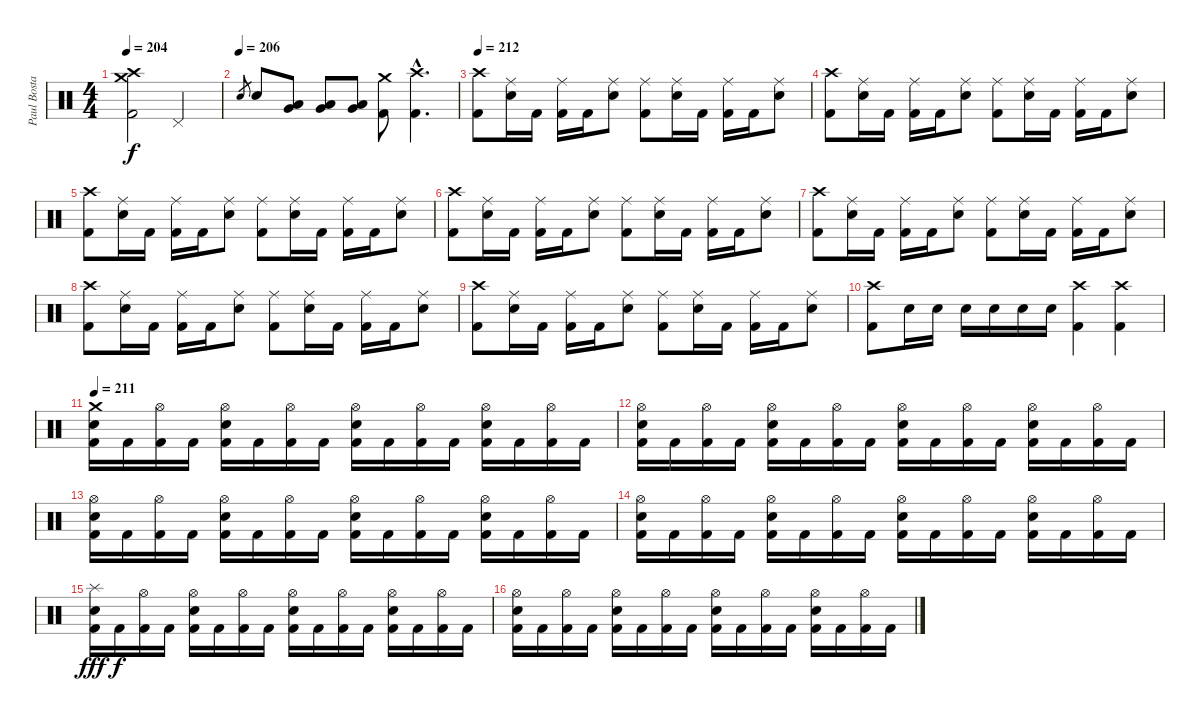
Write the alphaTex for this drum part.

\track ("Paul Bostaph" "Paul Bosta") {instrument percussion}
\staff {score}
\articulation defaults
\ts (4 4)
\tempo 204
\clef neutral
\ks c
("Crash high (hit)" "Crash medium (hit)" "Kick (hit) 2").2{dy f} "Pedal Hi-Hat (hit)".2 |
\tempo (206)
"Electric Snare (hit)".8{gr} "Electric Snare (hit)".8 ("Very Low Tom (hit)" "Low Tom (hit)").8 ("Very Low Tom (hit)" "Low Tom (hit)").8 ("Low Tom (hit)" "Very Low Tom (hit)").8 ("Crash medium (hit)" "Kick (hit) 2").8 ("Crash high (hit)"{hac} "Kick (hit) 2"{hac}).4{d} |
\tempo 212
("Crash high (hit)" "Kick (hit) 2").8 ("Ride (middle)" "Electric Snare (hit)").16 "Kick (hit) 2".16 ("Ride (middle)" "Kick (hit) 2").16 "Kick (hit) 2".16 ("Ride (middle)" "Electric Snare (hit)").8 ("Ride (middle)" "Kick (hit) 2").8 ("Ride (middle)" "Electric Snare (hit)").16 "Kick (hit) 2".16 ("Ride (middle)" "Kick (hit) 2").16 "Kick (hit) 2".16 ("Ride (middle)" "Electric Snare (hit)").8 |
("Crash high (hit)" "Kick (hit) 2").8 ("Ride (middle)" "Electric Snare (hit)").16 "Kick (hit) 2".16 ("Ride (middle)" "Kick (hit) 2").16 "Kick (hit) 2".16 ("Ride (middle)" "Electric Snare (hit)").8 ("Ride (middle)" "Kick (hit) 2").8 ("Ride (middle)" "Electric Snare (hit)").16 "Kick (hit) 2".16 ("Ride (middle)" "Kick (hit) 2").16 "Kick (hit) 2".16 ("Ride (middle)" "Electric Snare (hit)").8 |
("Crash high (hit)" "Kick (hit) 2").8 ("Ride (middle)" "Electric Snare (hit)").16 "Kick (hit) 2".16 ("Ride (middle)" "Kick (hit) 2").16 "Kick (hit) 2".16 ("Ride (middle)" "Electric Snare (hit)").8 ("Ride (middle)" "Kick (hit) 2").8 ("Ride (middle)" "Electric Snare (hit)").16 "Kick (hit) 2".16 ("Ride (middle)" "Kick (hit) 2").16 "Kick (hit) 2".16 ("Ride (middle)" "Electric Snare (hit)").8 |
("Crash high (hit)" "Kick (hit) 2").8 ("Ride (middle)" "Electric Snare (hit)").16 "Kick (hit) 2".16 ("Ride (middle)" "Kick (hit) 2").16 "Kick (hit) 2".16 ("Ride (middle)" "Electric Snare (hit)").8 ("Ride (middle)" "Kick (hit) 2").8 ("Ride (middle)" "Electric Snare (hit)").16 "Kick (hit) 2".16 ("Ride (middle)" "Kick (hit) 2").16 "Kick (hit) 2".16 ("Ride (middle)" "Electric Snare (hit)").8 |
("Crash high (hit)" "Kick (hit) 2").8 ("Ride (middle)" "Electric Snare (hit)").16 "Kick (hit) 2".16 ("Ride (middle)" "Kick (hit) 2").16 "Kick (hit) 2".16 ("Ride (middle)" "Electric Snare (hit)").8 ("Ride (middle)" "Kick (hit) 2").8 ("Ride (middle)" "Electric Snare (hit)").16 "Kick (hit) 2".16 ("Ride (middle)" "Kick (hit) 2").16 "Kick (hit) 2".16 ("Ride (middle)" "Electric Snare (hit)").8 |
("Crash high (hit)" "Kick (hit) 2").8 ("Ride (middle)" "Electric Snare (hit)").16 "Kick (hit) 2".16 ("Ride (middle)" "Kick (hit) 2").16 "Kick (hit) 2".16 ("Ride (middle)" "Electric Snare (hit)").8 ("Ride (middle)" "Kick (hit) 2").8 ("Ride (middle)" "Electric Snare (hit)").16 "Kick (hit) 2".16 ("Ride (middle)" "Kick (hit) 2").16 "Kick (hit) 2".16 ("Ride (middle)" "Electric Snare (hit)").8 |
("Crash high (hit)" "Kick (hit) 2").8 ("Ride (middle)" "Electric Snare (hit)").16 "Kick (hit) 2".16 ("Ride (middle)" "Kick (hit) 2").16 "Kick (hit) 2".16 ("Ride (middle)" "Electric Snare (hit)").8 ("Ride (middle)" "Kick (hit) 2").8 ("Ride (middle)" "Electric Snare (hit)").16 "Kick (hit) 2".16 ("Ride (middle)" "Kick (hit) 2").16 "Kick (hit) 2".16 ("Ride (middle)" "Electric Snare (hit)").8 |
("Crash high (hit)" "Kick (hit) 2").8 "Electric Snare (hit)".16 "Electric Snare (hit)".16 "Electric Snare (hit)".16 "Electric Snare (hit)".16 "Electric Snare (hit)".16 "Electric Snare (hit)".16 ("Crash high (hit)" "Kick (hit) 2").4 ("Crash high (hit)" "Kick (hit) 2").4 |
\tempo 211
("Kick (hit) 2" "Electric Snare (hit)" "Crash medium (hit)").16 "Kick (hit) 2".16 ("Kick (hit) 2" "Hi-Hat (open)").16 "Kick (hit) 2".16 ("Kick (hit) 2" "Electric Snare (hit)" "Hi-Hat (open)").16 "Kick (hit) 2".16 ("Kick (hit) 2" "Hi-Hat (open)").16 "Kick (hit) 2".16 ("Kick (hit) 2" "Electric Snare (hit)" "Hi-Hat (open)").16 "Kick (hit) 2".16 ("Kick (hit) 2" "Hi-Hat (open)").16 "Kick (hit) 2".16 ("Kick (hit) 2" "Electric Snare (hit)" "Hi-Hat (open)").16 "Kick (hit) 2".16 ("Kick (hit) 2" "Hi-Hat (open)").16 "Kick (hit) 2".16 |
("Kick (hit) 2" "Electric Snare (hit)" "Hi-Hat (open)").16 "Kick (hit) 2".16 ("Kick (hit) 2" "Hi-Hat (open)").16 "Kick (hit) 2".16 ("Kick (hit) 2" "Electric Snare (hit)" "Hi-Hat (open)").16 "Kick (hit) 2".16 ("Kick (hit) 2" "Hi-Hat (open)").16 "Kick (hit) 2".16 ("Kick (hit) 2" "Electric Snare (hit)" "Hi-Hat (open)").16 "Kick (hit) 2".16 ("Kick (hit) 2" "Hi-Hat (open)").16 "Kick (hit) 2".16 ("Kick (hit) 2" "Electric Snare (hit)" "Hi-Hat (open)").16 "Kick (hit) 2".16 ("Kick (hit) 2" "Hi-Hat (open)").16 "Kick (hit) 2".16 |
("Kick (hit) 2" "Electric Snare (hit)" "Hi-Hat (open)").16 "Kick (hit) 2".16 ("Kick (hit) 2" "Hi-Hat (open)").16 "Kick (hit) 2".16 ("Kick (hit) 2" "Electric Snare (hit)" "Hi-Hat (open)").16 "Kick (hit) 2".16 ("Kick (hit) 2" "Hi-Hat (open)").16 "Kick (hit) 2".16 ("Kick (hit) 2" "Electric Snare (hit)" "Hi-Hat (open)").16 "Kick (hit) 2".16 ("Kick (hit) 2" "Hi-Hat (open)").16 "Kick (hit) 2".16 ("Kick (hit) 2" "Electric Snare (hit)" "Hi-Hat (open)").16 "Kick (hit) 2".16 ("Kick (hit) 2" "Hi-Hat (open)").16 "Kick (hit) 2".16 |
("Kick (hit) 2" "Electric Snare (hit)" "Hi-Hat (open)").16 "Kick (hit) 2".16 ("Kick (hit) 2" "Hi-Hat (open)").16 "Kick (hit) 2".16 ("Kick (hit) 2" "Electric Snare (hit)" "Hi-Hat (open)").16 "Kick (hit) 2".16 ("Kick (hit) 2" "Hi-Hat (open)").16 "Kick (hit) 2".16 ("Kick (hit) 2" "Electric Snare (hit)" "Hi-Hat (open)").16 "Kick (hit) 2".16 ("Kick (hit) 2" "Hi-Hat (open)").16 "Kick (hit) 2".16 ("Kick (hit) 2" "Electric Snare (hit)" "Hi-Hat (open)").16 "Kick (hit) 2".16 ("Kick (hit) 2" "Hi-Hat (open)").16 "Kick (hit) 2".16 |
("Kick (hit) 2" "Electric Snare (hit)" "Splash (hit)").16{dy fff} "Kick (hit) 2".16{dy f} ("Kick (hit) 2" "Hi-Hat (open)").16 "Kick (hit) 2".16 ("Kick (hit) 2" "Electric Snare (hit)" "Hi-Hat (open)").16 "Kick (hit) 2".16 ("Kick (hit) 2" "Hi-Hat (open)").16 "Kick (hit) 2".16 ("Kick (hit) 2" "Electric Snare (hit)" "Hi-Hat (open)").16 "Kick (hit) 2".16 ("Kick (hit) 2" "Hi-Hat (open)").16 "Kick (hit) 2".16 ("Kick (hit) 2" "Electric Snare (hit)" "Hi-Hat (open)").16 "Kick (hit) 2".16 ("Kick (hit) 2" "Hi-Hat (open)").16 "Kick (hit) 2".16 |
("Kick (hit) 2" "Electric Snare (hit)" "Hi-Hat (open)").16 "Kick (hit) 2".16 ("Kick (hit) 2" "Hi-Hat (open)").16 "Kick (hit) 2".16 ("Kick (hit) 2" "Electric Snare (hit)" "Hi-Hat (open)").16 "Kick (hit) 2".16 ("Kick (hit) 2" "Hi-Hat (open)").16 "Kick (hit) 2".16 ("Kick (hit) 2" "Electric Snare (hit)" "Hi-Hat (open)").16 "Kick (hit) 2".16 ("Kick (hit) 2" "Hi-Hat (open)").16 "Kick (hit) 2".16 ("Kick (hit) 2" "Electric Snare (hit)" "Hi-Hat (open)").16 "Kick (hit) 2".16 ("Kick (hit) 2" "Hi-Hat (open)").16 "Kick (hit) 2".16
